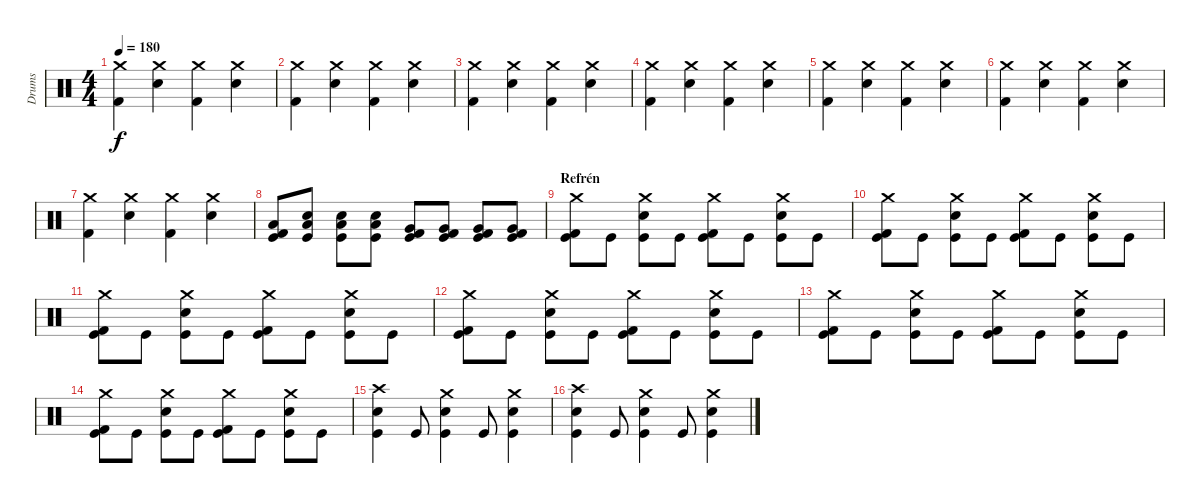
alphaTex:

\track ("Drums" "Drums") {instrument percussion}
\staff {score}
\articulation defaults
\ts (4 4)
\tempo 180
\clef neutral
\ks c
("Crash medium (hit)" "Kick (hit) 2").4{dy f} ("Crash medium (hit)" "Snare (hit) 2").4 ("Crash medium (hit)" "Kick (hit) 2").4 ("Crash medium (hit)" "Snare (hit) 2").4 |
("Crash medium (hit)" "Kick (hit) 2").4 ("Crash medium (hit)" "Snare (hit) 2").4 ("Crash medium (hit)" "Kick (hit) 2").4 ("Crash medium (hit)" "Snare (hit) 2").4 |
("Crash medium (hit)" "Kick (hit) 2").4 ("Crash medium (hit)" "Snare (hit) 2").4 ("Crash medium (hit)" "Kick (hit) 2").4 ("Crash medium (hit)" "Snare (hit) 2").4 |
("Crash medium (hit)" "Kick (hit) 2").4 ("Crash medium (hit)" "Snare (hit) 2").4 ("Crash medium (hit)" "Kick (hit) 2").4 ("Crash medium (hit)" "Snare (hit) 2").4 |
("Crash medium (hit)" "Kick (hit) 2").4 ("Crash medium (hit)" "Snare (hit) 2").4 ("Crash medium (hit)" "Kick (hit) 2").4 ("Crash medium (hit)" "Snare (hit) 2").4 |
("Crash medium (hit)" "Kick (hit) 2").4 ("Crash medium (hit)" "Snare (hit) 2").4 ("Crash medium (hit)" "Kick (hit) 2").4 ("Crash medium (hit)" "Snare (hit) 2").4 |
("Crash medium (hit)" "Kick (hit) 2").4 ("Crash medium (hit)" "Snare (hit) 2").4 ("Crash medium (hit)" "Kick (hit) 2").4 ("Crash medium (hit)" "Snare (hit) 2").4 |
("Kick (hit)" "Kick (hit) 2" "Low Floor Tom (hit)").8 ("Kick (hit)" "Snare (hit) 2" "Low Floor Tom (hit)").8 ("Kick (hit)" "Snare (hit) 2" "Low Floor Tom (hit)").8 ("Kick (hit)" "Snare (hit) 2" "Low Floor Tom (hit)").8 ("Kick (hit)" "Kick (hit) 2" "Very Low Tom (hit)").8 ("Kick (hit)" "Kick (hit) 2" "Very Low Tom (hit)").8 ("Kick (hit)" "Kick (hit) 2" "Very Low Tom (hit)").8 ("Kick (hit)" "Kick (hit) 2" "Very Low Tom (hit)").8 |
\section ("" "Refrén")
("Crash medium (hit)" "Kick (hit)" "Kick (hit) 2").8 "Kick (hit)".8 ("Crash medium (hit)" "Kick (hit)" "Electric Snare (hit)").8 "Kick (hit)".8 ("Crash medium (hit)" "Kick (hit)" "Kick (hit) 2").8 "Kick (hit)".8 ("Crash medium (hit)" "Kick (hit)" "Electric Snare (hit)").8 "Kick (hit)".8 |
("Crash medium (hit)" "Kick (hit)" "Kick (hit) 2").8 "Kick (hit)".8 ("Crash medium (hit)" "Kick (hit)" "Electric Snare (hit)").8 "Kick (hit)".8 ("Crash medium (hit)" "Kick (hit)" "Kick (hit) 2").8 "Kick (hit)".8 ("Crash medium (hit)" "Kick (hit)" "Electric Snare (hit)").8 "Kick (hit)".8 |
("Crash medium (hit)" "Kick (hit)" "Kick (hit) 2").8 "Kick (hit)".8 ("Crash medium (hit)" "Kick (hit)" "Electric Snare (hit)").8 "Kick (hit)".8 ("Crash medium (hit)" "Kick (hit)" "Kick (hit) 2").8 "Kick (hit)".8 ("Crash medium (hit)" "Kick (hit)" "Electric Snare (hit)").8 "Kick (hit)".8 |
("Crash medium (hit)" "Kick (hit)" "Kick (hit) 2").8 "Kick (hit)".8 ("Crash medium (hit)" "Kick (hit)" "Electric Snare (hit)").8 "Kick (hit)".8 ("Crash medium (hit)" "Kick (hit)" "Kick (hit) 2").8 "Kick (hit)".8 ("Crash medium (hit)" "Kick (hit)" "Electric Snare (hit)").8 "Kick (hit)".8 |
("Crash medium (hit)" "Kick (hit)" "Kick (hit) 2").8 "Kick (hit)".8 ("Crash medium (hit)" "Kick (hit)" "Electric Snare (hit)").8 "Kick (hit)".8 ("Crash medium (hit)" "Kick (hit)" "Kick (hit) 2").8 "Kick (hit)".8 ("Crash medium (hit)" "Kick (hit)" "Electric Snare (hit)").8 "Kick (hit)".8 |
("Crash medium (hit)" "Kick (hit)" "Kick (hit) 2").8 "Kick (hit)".8 ("Crash medium (hit)" "Kick (hit)" "Electric Snare (hit)").8 "Kick (hit)".8 ("Crash medium (hit)" "Kick (hit)" "Kick (hit) 2").8 "Kick (hit)".8 ("Crash medium (hit)" "Kick (hit)" "Electric Snare (hit)").8 "Kick (hit)".8 |
("Crash high (hit)" "Kick (hit)" "Snare (hit) 2").4 "Kick (hit)".8 ("Crash medium (hit)" "Kick (hit)" "Snare (hit) 2").4 "Kick (hit)".8 ("Crash medium (hit)" "Kick (hit)" "Snare (hit) 2").4 |
("Crash high (hit)" "Kick (hit)" "Snare (hit) 2").4 "Kick (hit)".8 ("Crash medium (hit)" "Kick (hit)" "Snare (hit) 2").4 "Kick (hit)".8 ("Crash medium (hit)" "Kick (hit)" "Snare (hit) 2").4
